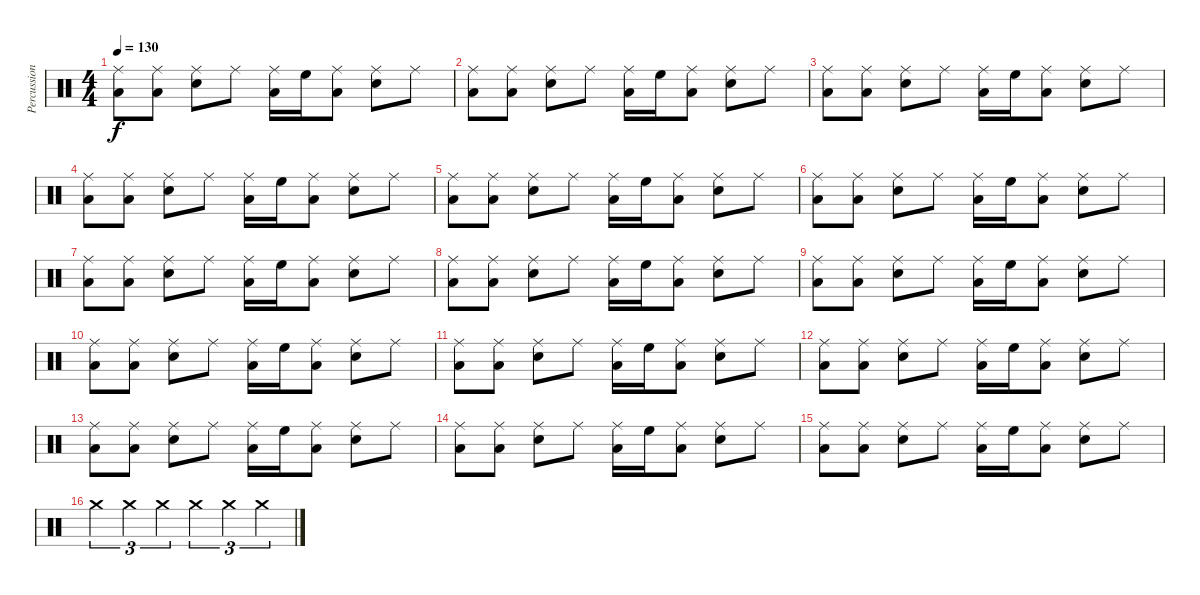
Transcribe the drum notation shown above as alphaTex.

\track ("Percussions" "Percussion") {instrument percussion}
\staff {score}
\articulation defaults
\ts (4 4)
\tempo 130
\clef neutral
\ks c
("Low Floor Tom (hit)" "Ride (middle)").8{dy f} ("Low Floor Tom (hit)" "Ride (middle)").8 ("Electric Snare (hit)" "Ride (middle)").8 "Ride (middle)".8 ("Low Floor Tom (hit)" "Ride (middle)").16 "High Floor Tom (hit)".16 ("Low Floor Tom (hit)" "Ride (middle)").8 ("Electric Snare (hit)" "Ride (middle)").8 "Ride (middle)".8 |
("Low Floor Tom (hit)" "Ride (middle)").8 ("Low Floor Tom (hit)" "Ride (middle)").8 ("Electric Snare (hit)" "Ride (middle)").8 "Ride (middle)".8 ("Low Floor Tom (hit)" "Ride (middle)").16 "High Floor Tom (hit)".16 ("Low Floor Tom (hit)" "Ride (middle)").8 ("Electric Snare (hit)" "Ride (middle)").8 "Ride (middle)".8 |
("Low Floor Tom (hit)" "Ride (middle)").8 ("Low Floor Tom (hit)" "Ride (middle)").8 ("Electric Snare (hit)" "Ride (middle)").8 "Ride (middle)".8 ("Low Floor Tom (hit)" "Ride (middle)").16 "High Floor Tom (hit)".16 ("Low Floor Tom (hit)" "Ride (middle)").8 ("Electric Snare (hit)" "Ride (middle)").8 "Ride (middle)".8 |
("Low Floor Tom (hit)" "Ride (middle)").8 ("Low Floor Tom (hit)" "Ride (middle)").8 ("Electric Snare (hit)" "Ride (middle)").8 "Ride (middle)".8 ("Low Floor Tom (hit)" "Ride (middle)").16 "High Floor Tom (hit)".16 ("Low Floor Tom (hit)" "Ride (middle)").8 ("Electric Snare (hit)" "Ride (middle)").8 "Ride (middle)".8 |
("Low Floor Tom (hit)" "Ride (middle)").8 ("Low Floor Tom (hit)" "Ride (middle)").8 ("Electric Snare (hit)" "Ride (middle)").8 "Ride (middle)".8 ("Low Floor Tom (hit)" "Ride (middle)").16 "High Floor Tom (hit)".16 ("Low Floor Tom (hit)" "Ride (middle)").8 ("Electric Snare (hit)" "Ride (middle)").8 "Ride (middle)".8 |
("Low Floor Tom (hit)" "Ride (middle)").8 ("Low Floor Tom (hit)" "Ride (middle)").8 ("Electric Snare (hit)" "Ride (middle)").8 "Ride (middle)".8 ("Low Floor Tom (hit)" "Ride (middle)").16 "High Floor Tom (hit)".16 ("Low Floor Tom (hit)" "Ride (middle)").8 ("Electric Snare (hit)" "Ride (middle)").8 "Ride (middle)".8 |
("Low Floor Tom (hit)" "Ride (middle)").8 ("Low Floor Tom (hit)" "Ride (middle)").8 ("Electric Snare (hit)" "Ride (middle)").8 "Ride (middle)".8 ("Low Floor Tom (hit)" "Ride (middle)").16 "High Floor Tom (hit)".16 ("Low Floor Tom (hit)" "Ride (middle)").8 ("Electric Snare (hit)" "Ride (middle)").8 "Ride (middle)".8 |
("Low Floor Tom (hit)" "Ride (middle)").8 ("Low Floor Tom (hit)" "Ride (middle)").8 ("Electric Snare (hit)" "Ride (middle)").8 "Ride (middle)".8 ("Low Floor Tom (hit)" "Ride (middle)").16 "High Floor Tom (hit)".16 ("Low Floor Tom (hit)" "Ride (middle)").8 ("Electric Snare (hit)" "Ride (middle)").8 "Ride (middle)".8 |
("Low Floor Tom (hit)" "Ride (middle)").8 ("Low Floor Tom (hit)" "Ride (middle)").8 ("Electric Snare (hit)" "Ride (middle)").8 "Ride (middle)".8 ("Low Floor Tom (hit)" "Ride (middle)").16 "High Floor Tom (hit)".16 ("Low Floor Tom (hit)" "Ride (middle)").8 ("Electric Snare (hit)" "Ride (middle)").8 "Ride (middle)".8 |
("Low Floor Tom (hit)" "Ride (middle)").8 ("Low Floor Tom (hit)" "Ride (middle)").8 ("Electric Snare (hit)" "Ride (middle)").8 "Ride (middle)".8 ("Low Floor Tom (hit)" "Ride (middle)").16 "High Floor Tom (hit)".16 ("Low Floor Tom (hit)" "Ride (middle)").8 ("Electric Snare (hit)" "Ride (middle)").8 "Ride (middle)".8 |
("Low Floor Tom (hit)" "Ride (middle)").8 ("Low Floor Tom (hit)" "Ride (middle)").8 ("Electric Snare (hit)" "Ride (middle)").8 "Ride (middle)".8 ("Low Floor Tom (hit)" "Ride (middle)").16 "High Floor Tom (hit)".16 ("Low Floor Tom (hit)" "Ride (middle)").8 ("Electric Snare (hit)" "Ride (middle)").8 "Ride (middle)".8 |
("Low Floor Tom (hit)" "Ride (middle)").8 ("Low Floor Tom (hit)" "Ride (middle)").8 ("Electric Snare (hit)" "Ride (middle)").8 "Ride (middle)".8 ("Low Floor Tom (hit)" "Ride (middle)").16 "High Floor Tom (hit)".16 ("Low Floor Tom (hit)" "Ride (middle)").8 ("Electric Snare (hit)" "Ride (middle)").8 "Ride (middle)".8 |
("Low Floor Tom (hit)" "Ride (middle)").8 ("Low Floor Tom (hit)" "Ride (middle)").8 ("Electric Snare (hit)" "Ride (middle)").8 "Ride (middle)".8 ("Low Floor Tom (hit)" "Ride (middle)").16 "High Floor Tom (hit)".16 ("Low Floor Tom (hit)" "Ride (middle)").8 ("Electric Snare (hit)" "Ride (middle)").8 "Ride (middle)".8 |
("Low Floor Tom (hit)" "Ride (middle)").8 ("Low Floor Tom (hit)" "Ride (middle)").8 ("Electric Snare (hit)" "Ride (middle)").8 "Ride (middle)".8 ("Low Floor Tom (hit)" "Ride (middle)").16 "High Floor Tom (hit)".16 ("Low Floor Tom (hit)" "Ride (middle)").8 ("Electric Snare (hit)" "Ride (middle)").8 "Ride (middle)".8 |
("Low Floor Tom (hit)" "Ride (middle)").8 ("Low Floor Tom (hit)" "Ride (middle)").8 ("Electric Snare (hit)" "Ride (middle)").8 "Ride (middle)".8 ("Low Floor Tom (hit)" "Ride (middle)").16 "High Floor Tom (hit)".16 ("Low Floor Tom (hit)" "Ride (middle)").8 ("Electric Snare (hit)" "Ride (middle)").8 "Ride (middle)".8 |
"Crash medium (hit)".4{tu (3 2)} "Crash medium (hit)".4{tu (3 2)} "Crash medium (hit)".4{tu (3 2)} "Crash medium (hit)".4{tu (3 2)} "Crash medium (hit)".4{tu (3 2)} "Crash medium (hit)".4{tu (3 2)}
